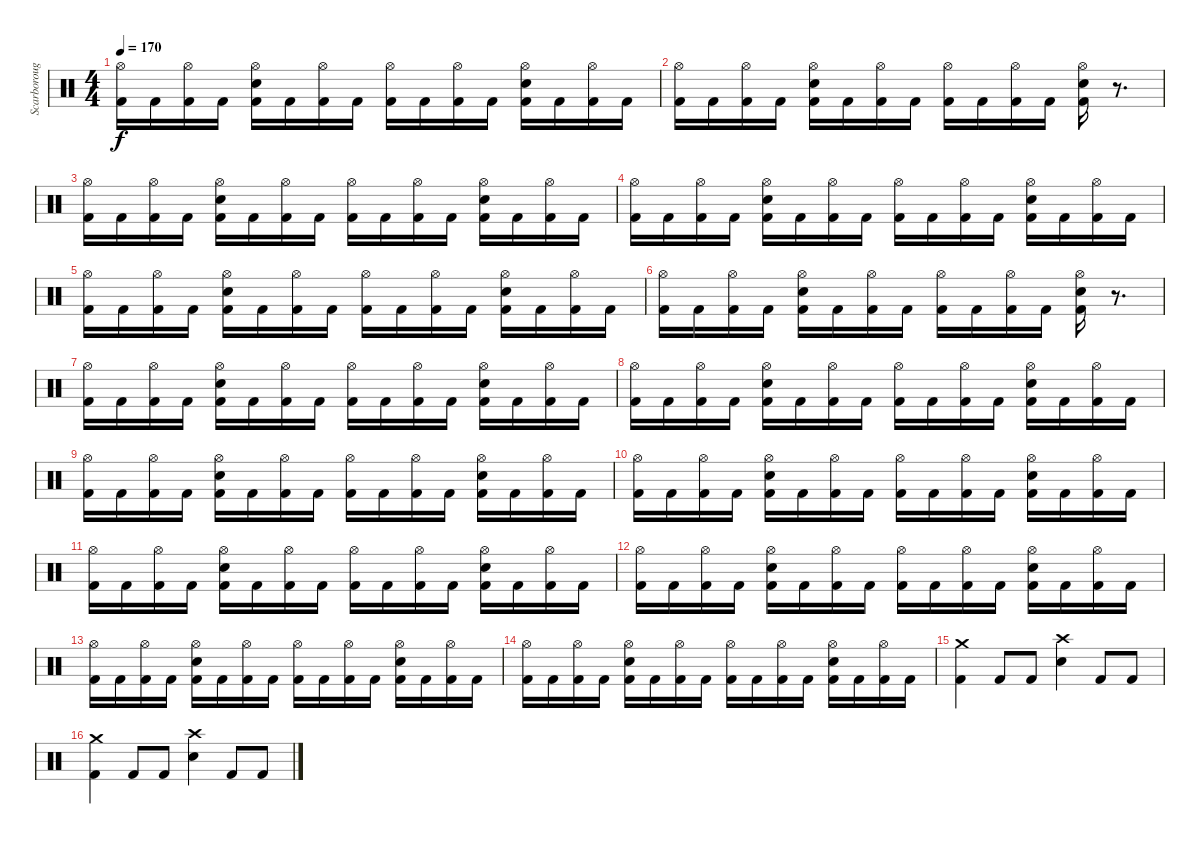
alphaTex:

\track ("Scarborough" "Scarboroug") {instrument percussion}
\staff {score}
\articulation defaults
\ts (4 4)
\tempo 170
\clef neutral
\ks c
("Hi-Hat (open)" "Kick (hit) 2").16{dy f} "Kick (hit) 2".16 ("Hi-Hat (open)" "Kick (hit) 2").16 "Kick (hit) 2".16 ("Hi-Hat (open)" "Kick (hit) 2" "Snare (hit) 2").16 "Kick (hit) 2".16 ("Hi-Hat (open)" "Kick (hit) 2").16 "Kick (hit) 2".16 ("Hi-Hat (open)" "Kick (hit) 2").16 "Kick (hit) 2".16 ("Hi-Hat (open)" "Kick (hit) 2").16 "Kick (hit) 2".16 ("Hi-Hat (open)" "Kick (hit) 2" "Snare (hit) 2").16 "Kick (hit) 2".16 ("Hi-Hat (open)" "Kick (hit) 2").16 "Kick (hit) 2".16 |
("Hi-Hat (open)" "Kick (hit) 2").16 "Kick (hit) 2".16 ("Hi-Hat (open)" "Kick (hit) 2").16 "Kick (hit) 2".16 ("Hi-Hat (open)" "Kick (hit) 2" "Snare (hit) 2").16 "Kick (hit) 2".16 ("Hi-Hat (open)" "Kick (hit) 2").16 "Kick (hit) 2".16 ("Hi-Hat (open)" "Kick (hit) 2").16 "Kick (hit) 2".16 ("Hi-Hat (open)" "Kick (hit) 2").16 "Kick (hit) 2".16 ("Hi-Hat (open)" "Kick (hit) 2" "Snare (hit) 2").16 r.8{d} |
("Hi-Hat (open)" "Kick (hit) 2").16 "Kick (hit) 2".16 ("Hi-Hat (open)" "Kick (hit) 2").16 "Kick (hit) 2".16 ("Hi-Hat (open)" "Kick (hit) 2" "Snare (hit) 2").16 "Kick (hit) 2".16 ("Hi-Hat (open)" "Kick (hit) 2").16 "Kick (hit) 2".16 ("Hi-Hat (open)" "Kick (hit) 2").16 "Kick (hit) 2".16 ("Hi-Hat (open)" "Kick (hit) 2").16 "Kick (hit) 2".16 ("Hi-Hat (open)" "Kick (hit) 2" "Snare (hit) 2").16 "Kick (hit) 2".16 ("Hi-Hat (open)" "Kick (hit) 2").16 "Kick (hit) 2".16 |
("Hi-Hat (open)" "Kick (hit) 2").16 "Kick (hit) 2".16 ("Hi-Hat (open)" "Kick (hit) 2").16 "Kick (hit) 2".16 ("Hi-Hat (open)" "Kick (hit) 2" "Snare (hit) 2").16 "Kick (hit) 2".16 ("Hi-Hat (open)" "Kick (hit) 2").16 "Kick (hit) 2".16 ("Hi-Hat (open)" "Kick (hit) 2").16 "Kick (hit) 2".16 ("Hi-Hat (open)" "Kick (hit) 2").16 "Kick (hit) 2".16 ("Hi-Hat (open)" "Kick (hit) 2" "Snare (hit) 2").16 "Kick (hit) 2".16 ("Hi-Hat (open)" "Kick (hit) 2").16 "Kick (hit) 2".16 |
("Hi-Hat (open)" "Kick (hit) 2").16 "Kick (hit) 2".16 ("Hi-Hat (open)" "Kick (hit) 2").16 "Kick (hit) 2".16 ("Hi-Hat (open)" "Kick (hit) 2" "Snare (hit) 2").16 "Kick (hit) 2".16 ("Hi-Hat (open)" "Kick (hit) 2").16 "Kick (hit) 2".16 ("Hi-Hat (open)" "Kick (hit) 2").16 "Kick (hit) 2".16 ("Hi-Hat (open)" "Kick (hit) 2").16 "Kick (hit) 2".16 ("Hi-Hat (open)" "Kick (hit) 2" "Snare (hit) 2").16 "Kick (hit) 2".16 ("Hi-Hat (open)" "Kick (hit) 2").16 "Kick (hit) 2".16 |
("Hi-Hat (open)" "Kick (hit) 2").16 "Kick (hit) 2".16 ("Hi-Hat (open)" "Kick (hit) 2").16 "Kick (hit) 2".16 ("Hi-Hat (open)" "Kick (hit) 2" "Snare (hit) 2").16 "Kick (hit) 2".16 ("Hi-Hat (open)" "Kick (hit) 2").16 "Kick (hit) 2".16 ("Hi-Hat (open)" "Kick (hit) 2").16 "Kick (hit) 2".16 ("Hi-Hat (open)" "Kick (hit) 2").16 "Kick (hit) 2".16 ("Hi-Hat (open)" "Kick (hit) 2" "Snare (hit) 2").16 r.8{d} |
("Hi-Hat (open)" "Kick (hit) 2").16 "Kick (hit) 2".16 ("Hi-Hat (open)" "Kick (hit) 2").16 "Kick (hit) 2".16 ("Hi-Hat (open)" "Kick (hit) 2" "Snare (hit) 2").16 "Kick (hit) 2".16 ("Hi-Hat (open)" "Kick (hit) 2").16 "Kick (hit) 2".16 ("Hi-Hat (open)" "Kick (hit) 2").16 "Kick (hit) 2".16 ("Hi-Hat (open)" "Kick (hit) 2").16 "Kick (hit) 2".16 ("Hi-Hat (open)" "Kick (hit) 2" "Snare (hit) 2").16 "Kick (hit) 2".16 ("Hi-Hat (open)" "Kick (hit) 2").16 "Kick (hit) 2".16 |
("Hi-Hat (open)" "Kick (hit) 2").16 "Kick (hit) 2".16 ("Hi-Hat (open)" "Kick (hit) 2").16 "Kick (hit) 2".16 ("Hi-Hat (open)" "Kick (hit) 2" "Snare (hit) 2").16 "Kick (hit) 2".16 ("Hi-Hat (open)" "Kick (hit) 2").16 "Kick (hit) 2".16 ("Hi-Hat (open)" "Kick (hit) 2").16 "Kick (hit) 2".16 ("Hi-Hat (open)" "Kick (hit) 2").16 "Kick (hit) 2".16 ("Hi-Hat (open)" "Kick (hit) 2" "Snare (hit) 2").16 "Kick (hit) 2".16 ("Hi-Hat (open)" "Kick (hit) 2").16 "Kick (hit) 2".16 |
("Hi-Hat (open)" "Kick (hit) 2").16 "Kick (hit) 2".16 ("Hi-Hat (open)" "Kick (hit) 2").16 "Kick (hit) 2".16 ("Hi-Hat (open)" "Kick (hit) 2" "Snare (hit) 2").16 "Kick (hit) 2".16 ("Hi-Hat (open)" "Kick (hit) 2").16 "Kick (hit) 2".16 ("Hi-Hat (open)" "Kick (hit) 2").16 "Kick (hit) 2".16 ("Hi-Hat (open)" "Kick (hit) 2").16 "Kick (hit) 2".16 ("Hi-Hat (open)" "Kick (hit) 2" "Snare (hit) 2").16 "Kick (hit) 2".16 ("Hi-Hat (open)" "Kick (hit) 2").16 "Kick (hit) 2".16 |
("Hi-Hat (open)" "Kick (hit) 2").16 "Kick (hit) 2".16 ("Hi-Hat (open)" "Kick (hit) 2").16 "Kick (hit) 2".16 ("Hi-Hat (open)" "Kick (hit) 2" "Snare (hit) 2").16 "Kick (hit) 2".16 ("Hi-Hat (open)" "Kick (hit) 2").16 "Kick (hit) 2".16 ("Hi-Hat (open)" "Kick (hit) 2").16 "Kick (hit) 2".16 ("Hi-Hat (open)" "Kick (hit) 2").16 "Kick (hit) 2".16 ("Hi-Hat (open)" "Kick (hit) 2" "Snare (hit) 2").16 "Kick (hit) 2".16 ("Hi-Hat (open)" "Kick (hit) 2").16 "Kick (hit) 2".16 |
("Hi-Hat (open)" "Kick (hit) 2").16 "Kick (hit) 2".16 ("Hi-Hat (open)" "Kick (hit) 2").16 "Kick (hit) 2".16 ("Hi-Hat (open)" "Kick (hit) 2" "Snare (hit) 2").16 "Kick (hit) 2".16 ("Hi-Hat (open)" "Kick (hit) 2").16 "Kick (hit) 2".16 ("Hi-Hat (open)" "Kick (hit) 2").16 "Kick (hit) 2".16 ("Hi-Hat (open)" "Kick (hit) 2").16 "Kick (hit) 2".16 ("Hi-Hat (open)" "Kick (hit) 2" "Snare (hit) 2").16 "Kick (hit) 2".16 ("Hi-Hat (open)" "Kick (hit) 2").16 "Kick (hit) 2".16 |
("Hi-Hat (open)" "Kick (hit) 2").16 "Kick (hit) 2".16 ("Hi-Hat (open)" "Kick (hit) 2").16 "Kick (hit) 2".16 ("Hi-Hat (open)" "Kick (hit) 2" "Snare (hit) 2").16 "Kick (hit) 2".16 ("Hi-Hat (open)" "Kick (hit) 2").16 "Kick (hit) 2".16 ("Hi-Hat (open)" "Kick (hit) 2").16 "Kick (hit) 2".16 ("Hi-Hat (open)" "Kick (hit) 2").16 "Kick (hit) 2".16 ("Hi-Hat (open)" "Kick (hit) 2" "Snare (hit) 2").16 "Kick (hit) 2".16 ("Hi-Hat (open)" "Kick (hit) 2").16 "Kick (hit) 2".16 |
("Hi-Hat (open)" "Kick (hit) 2").16 "Kick (hit) 2".16 ("Hi-Hat (open)" "Kick (hit) 2").16 "Kick (hit) 2".16 ("Hi-Hat (open)" "Kick (hit) 2" "Snare (hit) 2").16 "Kick (hit) 2".16 ("Hi-Hat (open)" "Kick (hit) 2").16 "Kick (hit) 2".16 ("Hi-Hat (open)" "Kick (hit) 2").16 "Kick (hit) 2".16 ("Hi-Hat (open)" "Kick (hit) 2").16 "Kick (hit) 2".16 ("Hi-Hat (open)" "Kick (hit) 2" "Snare (hit) 2").16 "Kick (hit) 2".16 ("Hi-Hat (open)" "Kick (hit) 2").16 "Kick (hit) 2".16 |
("Hi-Hat (open)" "Kick (hit) 2").16 "Kick (hit) 2".16 ("Hi-Hat (open)" "Kick (hit) 2").16 "Kick (hit) 2".16 ("Hi-Hat (open)" "Kick (hit) 2" "Snare (hit) 2").16 "Kick (hit) 2".16 ("Hi-Hat (open)" "Kick (hit) 2").16 "Kick (hit) 2".16 ("Hi-Hat (open)" "Kick (hit) 2").16 "Kick (hit) 2".16 ("Hi-Hat (open)" "Kick (hit) 2").16 "Kick (hit) 2".16 ("Hi-Hat (open)" "Kick (hit) 2" "Snare (hit) 2").16 "Kick (hit) 2".16 ("Hi-Hat (open)" "Kick (hit) 2").16 "Kick (hit) 2".16 |
("Crash medium (hit)" "Kick (hit) 2").4 "Kick (hit) 2".8 "Kick (hit) 2".8 ("Crash high (hit)" "Snare (hit) 2").4 "Kick (hit) 2".8 "Kick (hit) 2".8 |
("Crash medium (hit)" "Kick (hit) 2").4 "Kick (hit) 2".8 "Kick (hit) 2".8 ("Crash high (hit)" "Snare (hit) 2").4 "Kick (hit) 2".8 "Kick (hit) 2".8
